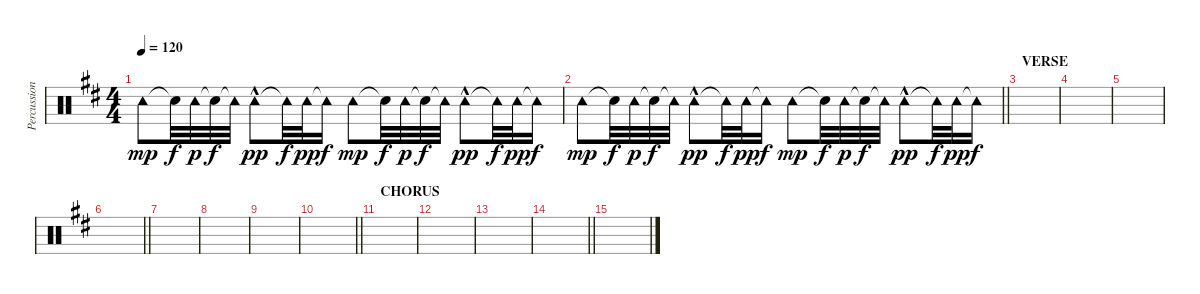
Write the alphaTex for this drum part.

\track ("Percussion" "Percussion") {instrument percussion}
\staff {score}
\articulation defaults
\ts (4 4)
\tempo 120
\clef neutral
\ks d "Tambourine (hit)".8{dy mp} "Snare (hit)"{t}.32{dy f} "Tambourine (hit)".32{dy p} "Snare (hit)"{t}.32{dy f} "Tambourine (hit)"{t}.32 "Tambourine (hit)"{hac}.8{dy pp} "Tambourine (hit)"{t}.32{dy f} "Tambourine (hit)".32{dy pp} "Tambourine (hit)"{t}.16{dy f} "Tambourine (hit)".8{dy mp} "Snare (hit)"{t}.32{dy f} "Tambourine (hit)".32{dy p} "Snare (hit)"{t}.32{dy f} "Tambourine (hit)"{t}.32 "Tambourine (hit)"{hac}.8{dy pp} "Tambourine (hit)"{t}.32{dy f} "Tambourine (hit)".32{dy pp} "Tambourine (hit)"{t}.16{dy f}
|
\barLineRight lightlight "Tambourine (hit)".8{dy mp} "Snare (hit)"{t}.32{dy f} "Tambourine (hit)".32{dy p} "Snare (hit)"{t}.32{dy f} "Tambourine (hit)"{t}.32 "Tambourine (hit)"{hac}.8{dy pp} "Tambourine (hit)"{t}.32{dy f} "Tambourine (hit)".32{dy pp} "Tambourine (hit)"{t}.16{dy f} "Tambourine (hit)".8{dy mp} "Snare (hit)"{t}.32{dy f} "Tambourine (hit)".32{dy p} "Snare (hit)"{t}.32{dy f} "Tambourine (hit)"{t}.32 "Tambourine (hit)"{hac}.8{dy pp} "Tambourine (hit)"{t}.32{dy f} "Tambourine (hit)".32{dy pp} "Tambourine (hit)"{t}.16{dy f}
|
\section ("" "VERSE")
|
|
|
\barLineRight lightlight
|
\section ("" "")
|
|
|
\barLineRight lightlight
|
\section ("" "CHORUS")
|
|
|
\barLineRight lightlight
|
\section ("" "")
